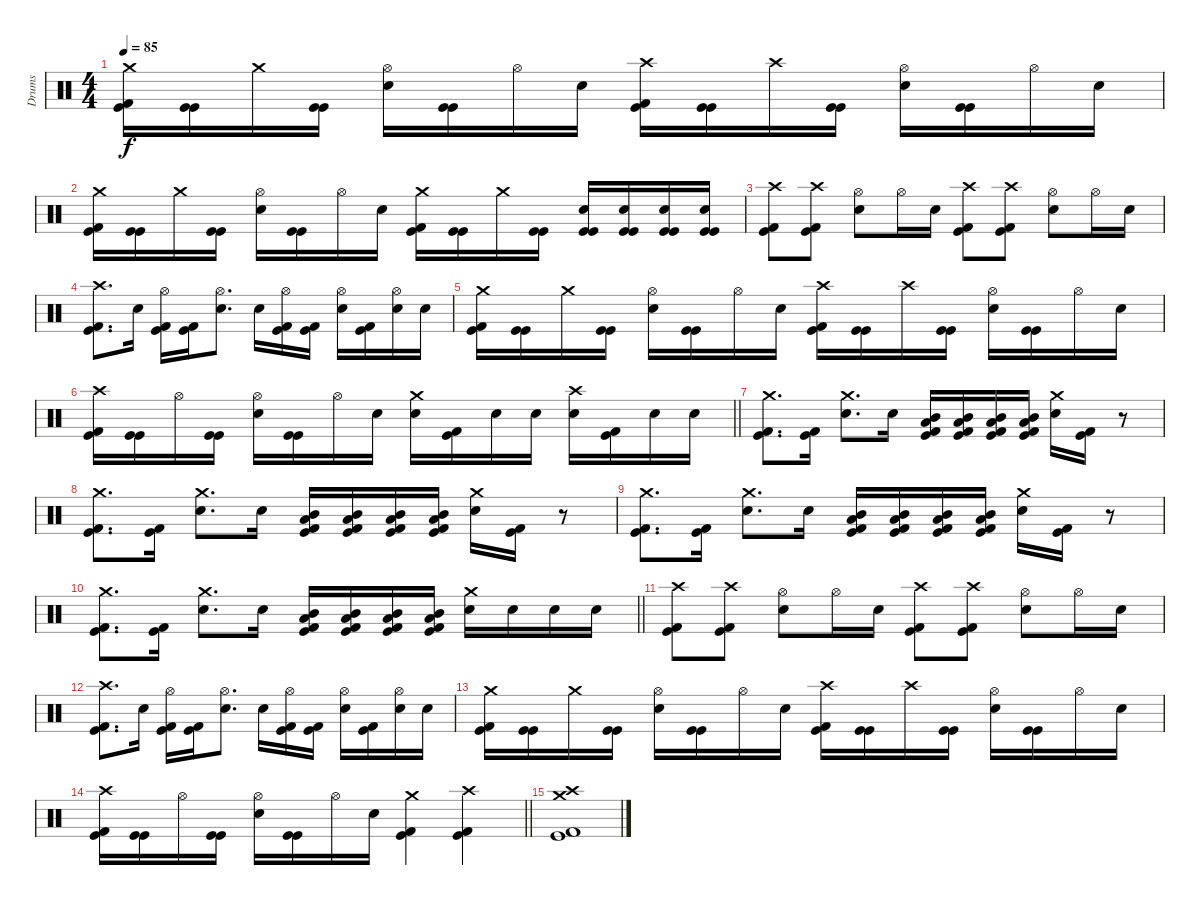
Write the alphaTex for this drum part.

\track ("Drums" "Drums") {instrument percussion}
\staff {score}
\articulation defaults
\ts (4 4)
\tempo 85
\clef neutral
\ks c
("Crash medium (hit)" "Kick (hit) 2" "Kick (hit)").16{dy f} ("Kick (hit)" "Kick (hit)").16 "Crash medium (hit)".16 ("Kick (hit)" "Kick (hit)").16 ("Electric Snare (hit)" "Hi-Hat (open)").16 ("Kick (hit)" "Kick (hit)").16 "Hi-Hat (open)".16 "Electric Snare (hit)".16 ("Crash high (hit)" "Kick (hit) 2" "Kick (hit)").16 ("Kick (hit)" "Kick (hit)").16 "Crash high (hit)".16 ("Kick (hit)" "Kick (hit)").16 ("Electric Snare (hit)" "Hi-Hat (open)").16 ("Kick (hit)" "Kick (hit)").16 "Hi-Hat (open)".16 "Electric Snare (hit)".16 |
("Crash medium (hit)" "Kick (hit) 2" "Kick (hit)").16 ("Kick (hit)" "Kick (hit)").16 "Crash medium (hit)".16 ("Kick (hit)" "Kick (hit)").16 ("Electric Snare (hit)" "Hi-Hat (open)").16 ("Kick (hit)" "Kick (hit)").16 "Hi-Hat (open)".16 "Electric Snare (hit)".16 ("Crash medium (hit)" "Kick (hit) 2" "Kick (hit)").16 ("Kick (hit)" "Kick (hit)").16 "Crash medium (hit)".16 ("Kick (hit)" "Kick (hit)").16 ("Electric Snare (hit)" "Kick (hit)" "Kick (hit)").16 ("Electric Snare (hit)" "Kick (hit)" "Kick (hit)").16 ("Electric Snare (hit)" "Kick (hit)" "Kick (hit)").16 ("Electric Snare (hit)" "Kick (hit)" "Kick (hit)").16 |
("Crash high (hit)" "Kick (hit)" "Kick (hit) 2").8 ("Crash high (hit)" "Kick (hit)" "Kick (hit) 2").8 ("Electric Snare (hit)" "Hi-Hat (open)").8 "Hi-Hat (open)".16 "Electric Snare (hit)".16 ("Crash high (hit)" "Kick (hit)" "Kick (hit) 2").8 ("Crash high (hit)" "Kick (hit)" "Kick (hit) 2").8 ("Electric Snare (hit)" "Hi-Hat (open)").8 "Hi-Hat (open)".16 "Electric Snare (hit)".16 |
("Crash high (hit)" "Kick (hit)" "Kick (hit) 2").8{d} "Electric Snare (hit)".16 ("Hi-Hat (open)" "Kick (hit)" "Kick (hit) 2").16 ("Kick (hit)" "Kick (hit) 2").16 ("Electric Snare (hit)" "Hi-Hat (open)").8{d} "Electric Snare (hit)".16 ("Hi-Hat (open)" "Kick (hit)" "Kick (hit) 2").16 ("Kick (hit)" "Kick (hit) 2").16 ("Electric Snare (hit)" "Hi-Hat (open)").16 ("Kick (hit)" "Kick (hit) 2").16 ("Electric Snare (hit)" "Hi-Hat (open)").16 "Electric Snare (hit)".16 |
("Crash medium (hit)" "Kick (hit) 2" "Kick (hit)").16 ("Kick (hit)" "Kick (hit)").16 "Crash medium (hit)".16 ("Kick (hit)" "Kick (hit)").16 ("Electric Snare (hit)" "Hi-Hat (open)").16 ("Kick (hit)" "Kick (hit)").16 "Hi-Hat (open)".16 "Electric Snare (hit)".16 ("Crash high (hit)" "Kick (hit) 2" "Kick (hit)").16 ("Kick (hit)" "Kick (hit)").16 "Crash high (hit)".16 ("Kick (hit)" "Kick (hit)").16 ("Electric Snare (hit)" "Hi-Hat (open)").16 ("Kick (hit)" "Kick (hit)").16 "Hi-Hat (open)".16 "Electric Snare (hit)".16 |
\barLineRight lightlight
("Crash high (hit)" "Kick (hit) 2" "Kick (hit)").16 ("Kick (hit)" "Kick (hit)").16 "Hi-Hat (open)".16 ("Kick (hit)" "Kick (hit)").16 ("Electric Snare (hit)" "Hi-Hat (open)").16 ("Kick (hit)" "Kick (hit)").16 "Hi-Hat (open)".16 "Electric Snare (hit)".16 ("Electric Snare (hit)" "Crash medium (hit)").16 ("Kick (hit) 2" "Kick (hit)").16 "Electric Snare (hit)".16 "Electric Snare (hit)".16 ("Electric Snare (hit)" "Crash high (hit)").16 ("Kick (hit) 2" "Kick (hit)").16 "Electric Snare (hit)".16 "Electric Snare (hit)".16 |
("Crash medium (hit)" "Kick (hit) 2" "Kick (hit)").8{d} ("Kick (hit)" "Kick (hit) 2").16 ("Electric Snare (hit)" "Crash medium (hit)").8{d} "Electric Snare (hit)".16 ("Mid Tom (hit)" "Low Tom (hit)" "Kick (hit) 2" "Kick (hit)").16 ("Mid Tom (hit)" "Low Tom (hit)" "Kick (hit) 2" "Kick (hit)").16 ("Mid Tom (hit)" "Low Tom (hit)" "Kick (hit) 2" "Kick (hit)").16 ("Mid Tom (hit)" "Low Tom (hit)" "Kick (hit) 2" "Kick (hit)").16 ("Electric Snare (hit)" "Crash medium (hit)").16 ("Kick (hit)" "Kick (hit) 2").16 r.8 |
("Crash medium (hit)" "Kick (hit) 2" "Kick (hit)").8{d} ("Kick (hit)" "Kick (hit) 2").16 ("Electric Snare (hit)" "Crash medium (hit)").8{d} "Electric Snare (hit)".16 ("Mid Tom (hit)" "Low Tom (hit)" "Kick (hit) 2" "Kick (hit)").16 ("Mid Tom (hit)" "Low Tom (hit)" "Kick (hit) 2" "Kick (hit)").16 ("Mid Tom (hit)" "Low Tom (hit)" "Kick (hit) 2" "Kick (hit)").16 ("Mid Tom (hit)" "Low Tom (hit)" "Kick (hit) 2" "Kick (hit)").16 ("Electric Snare (hit)" "Crash medium (hit)").16 ("Kick (hit)" "Kick (hit) 2").16 r.8 |
("Crash medium (hit)" "Kick (hit) 2" "Kick (hit)").8{d} ("Kick (hit)" "Kick (hit) 2").16 ("Electric Snare (hit)" "Crash medium (hit)").8{d} "Electric Snare (hit)".16 ("Mid Tom (hit)" "Low Tom (hit)" "Kick (hit) 2" "Kick (hit)").16 ("Mid Tom (hit)" "Low Tom (hit)" "Kick (hit) 2" "Kick (hit)").16 ("Mid Tom (hit)" "Low Tom (hit)" "Kick (hit) 2" "Kick (hit)").16 ("Mid Tom (hit)" "Low Tom (hit)" "Kick (hit) 2" "Kick (hit)").16 ("Electric Snare (hit)" "Crash medium (hit)").16 ("Kick (hit)" "Kick (hit) 2").16 r.8 |
\barLineRight lightlight
("Crash medium (hit)" "Kick (hit) 2" "Kick (hit)").8{d} ("Kick (hit)" "Kick (hit) 2").16 ("Electric Snare (hit)" "Crash medium (hit)").8{d} "Electric Snare (hit)".16 ("Mid Tom (hit)" "Low Tom (hit)" "Kick (hit) 2" "Kick (hit)").16 ("Mid Tom (hit)" "Low Tom (hit)" "Kick (hit) 2" "Kick (hit)").16 ("Mid Tom (hit)" "Low Tom (hit)" "Kick (hit) 2" "Kick (hit)").16 ("Mid Tom (hit)" "Low Tom (hit)" "Kick (hit) 2" "Kick (hit)").16 ("Electric Snare (hit)" "Crash medium (hit)").16 "Electric Snare (hit)".16 "Electric Snare (hit)".16 "Electric Snare (hit)".16 |
("Crash high (hit)" "Kick (hit)" "Kick (hit) 2").8 ("Crash high (hit)" "Kick (hit)" "Kick (hit) 2").8 ("Electric Snare (hit)" "Hi-Hat (open)").8 "Hi-Hat (open)".16 "Electric Snare (hit)".16 ("Crash high (hit)" "Kick (hit)" "Kick (hit) 2").8 ("Crash high (hit)" "Kick (hit)" "Kick (hit) 2").8 ("Electric Snare (hit)" "Hi-Hat (open)").8 "Hi-Hat (open)".16 "Electric Snare (hit)".16 |
("Crash high (hit)" "Kick (hit)" "Kick (hit) 2").8{d} "Electric Snare (hit)".16 ("Hi-Hat (open)" "Kick (hit)" "Kick (hit) 2").16 ("Kick (hit)" "Kick (hit) 2").16 ("Electric Snare (hit)" "Hi-Hat (open)").8{d} "Electric Snare (hit)".16 ("Hi-Hat (open)" "Kick (hit)" "Kick (hit) 2").16 ("Kick (hit)" "Kick (hit) 2").16 ("Electric Snare (hit)" "Hi-Hat (open)").16 ("Kick (hit)" "Kick (hit) 2").16 ("Electric Snare (hit)" "Hi-Hat (open)").16 "Electric Snare (hit)".16 |
("Crash medium (hit)" "Kick (hit) 2" "Kick (hit)").16 ("Kick (hit)" "Kick (hit)").16 "Crash medium (hit)".16 ("Kick (hit)" "Kick (hit)").16 ("Electric Snare (hit)" "Hi-Hat (open)").16 ("Kick (hit)" "Kick (hit)").16 "Hi-Hat (open)".16 "Electric Snare (hit)".16 ("Crash high (hit)" "Kick (hit) 2" "Kick (hit)").16 ("Kick (hit)" "Kick (hit)").16 "Crash high (hit)".16 ("Kick (hit)" "Kick (hit)").16 ("Electric Snare (hit)" "Hi-Hat (open)").16 ("Kick (hit)" "Kick (hit)").16 "Hi-Hat (open)".16 "Electric Snare (hit)".16 |
\barLineRight lightlight
("Crash high (hit)" "Kick (hit) 2" "Kick (hit)").16 ("Kick (hit)" "Kick (hit)").16 "Hi-Hat (open)".16 ("Kick (hit)" "Kick (hit)").16 ("Electric Snare (hit)" "Hi-Hat (open)").16 ("Kick (hit)" "Kick (hit)").16 "Hi-Hat (open)".16 "Electric Snare (hit)".16 ("Crash medium (hit)" "Kick (hit) 2" "Kick (hit)").4 ("Crash high (hit)" "Kick (hit) 2" "Kick (hit)").4 |
("Crash medium (hit)" "Crash high (hit)" "Kick (hit) 2" "Kick (hit)").1
